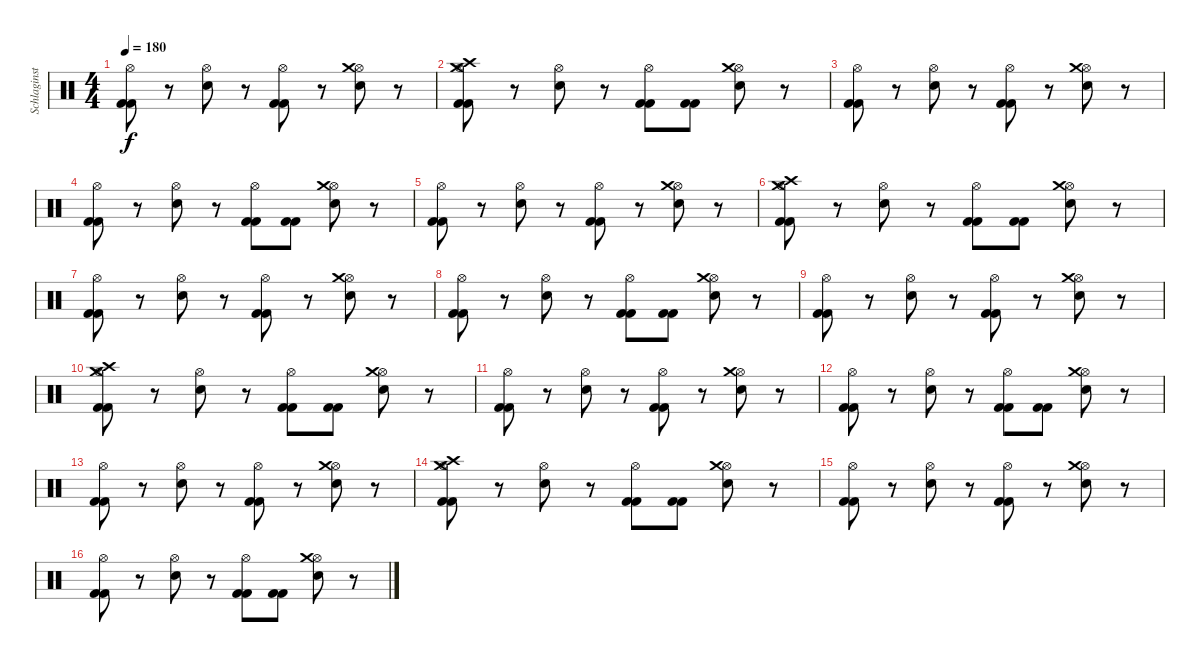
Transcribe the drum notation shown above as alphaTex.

\track ("Schlaginstrumente - Auswahl" "Schlaginst") {instrument percussion}
\staff {score}
\articulation defaults
\ts (4 4)
\tempo 180
\clef neutral
\ks c
("Kick (hit) 2" "Kick (hit) 2" "Hi-Hat (open)").8{dy f} r.8 ("Hi-Hat (open)" "Snare (hit) 2").8 r.8 ("Kick (hit) 2" "Kick (hit) 2" "Hi-Hat (open)").8 r.8 ("Hi-Hat (open)" "Snare (hit) 2" "Crash medium (hit)").8 r.8 |
("Kick (hit) 2" "Kick (hit) 2" "Hi-Hat (open)" "Crash high (hit)" "Crash medium (hit)").8 r.8 ("Hi-Hat (open)" "Snare (hit) 2").8 r.8 ("Kick (hit) 2" "Kick (hit) 2" "Hi-Hat (open)").8 ("Kick (hit) 2" "Kick (hit) 2").8 ("Hi-Hat (open)" "Snare (hit) 2" "Crash medium (hit)").8 r.8 |
("Kick (hit) 2" "Kick (hit) 2" "Hi-Hat (open)").8 r.8 ("Hi-Hat (open)" "Snare (hit) 2").8 r.8 ("Kick (hit) 2" "Kick (hit) 2" "Hi-Hat (open)").8 r.8 ("Hi-Hat (open)" "Snare (hit) 2" "Crash medium (hit)").8 r.8 |
("Kick (hit) 2" "Kick (hit) 2" "Hi-Hat (open)").8 r.8 ("Hi-Hat (open)" "Snare (hit) 2").8 r.8 ("Kick (hit) 2" "Kick (hit) 2" "Hi-Hat (open)").8 ("Kick (hit) 2" "Kick (hit) 2").8 ("Hi-Hat (open)" "Snare (hit) 2" "Crash medium (hit)").8 r.8 |
("Kick (hit) 2" "Kick (hit) 2" "Hi-Hat (open)").8 r.8 ("Hi-Hat (open)" "Snare (hit) 2").8 r.8 ("Kick (hit) 2" "Kick (hit) 2" "Hi-Hat (open)").8 r.8 ("Hi-Hat (open)" "Snare (hit) 2" "Crash medium (hit)").8 r.8 |
("Kick (hit) 2" "Kick (hit) 2" "Hi-Hat (open)" "Crash high (hit)" "Crash medium (hit)").8 r.8 ("Hi-Hat (open)" "Snare (hit) 2").8 r.8 ("Kick (hit) 2" "Kick (hit) 2" "Hi-Hat (open)").8 ("Kick (hit) 2" "Kick (hit) 2").8 ("Hi-Hat (open)" "Snare (hit) 2" "Crash medium (hit)").8 r.8 |
("Kick (hit) 2" "Kick (hit) 2" "Hi-Hat (open)").8 r.8 ("Hi-Hat (open)" "Snare (hit) 2").8 r.8 ("Kick (hit) 2" "Kick (hit) 2" "Hi-Hat (open)").8 r.8 ("Hi-Hat (open)" "Snare (hit) 2" "Crash medium (hit)").8 r.8 |
("Kick (hit) 2" "Kick (hit) 2" "Hi-Hat (open)").8 r.8 ("Hi-Hat (open)" "Snare (hit) 2").8 r.8 ("Kick (hit) 2" "Kick (hit) 2" "Hi-Hat (open)").8 ("Kick (hit) 2" "Kick (hit) 2").8 ("Hi-Hat (open)" "Snare (hit) 2" "Crash medium (hit)").8 r.8 |
("Kick (hit) 2" "Kick (hit) 2" "Hi-Hat (open)").8 r.8 ("Hi-Hat (open)" "Snare (hit) 2").8 r.8 ("Kick (hit) 2" "Kick (hit) 2" "Hi-Hat (open)").8 r.8 ("Hi-Hat (open)" "Snare (hit) 2" "Crash medium (hit)").8 r.8 |
("Kick (hit) 2" "Kick (hit) 2" "Hi-Hat (open)" "Crash high (hit)" "Crash medium (hit)").8 r.8 ("Hi-Hat (open)" "Snare (hit) 2").8 r.8 ("Kick (hit) 2" "Kick (hit) 2" "Hi-Hat (open)").8 ("Kick (hit) 2" "Kick (hit) 2").8 ("Hi-Hat (open)" "Snare (hit) 2" "Crash medium (hit)").8 r.8 |
("Kick (hit) 2" "Kick (hit) 2" "Hi-Hat (open)").8 r.8 ("Hi-Hat (open)" "Snare (hit) 2").8 r.8 ("Kick (hit) 2" "Kick (hit) 2" "Hi-Hat (open)").8 r.8 ("Hi-Hat (open)" "Snare (hit) 2" "Crash medium (hit)").8 r.8 |
("Kick (hit) 2" "Kick (hit) 2" "Hi-Hat (open)").8 r.8 ("Hi-Hat (open)" "Snare (hit) 2").8 r.8 ("Kick (hit) 2" "Kick (hit) 2" "Hi-Hat (open)").8 ("Kick (hit) 2" "Kick (hit) 2").8 ("Hi-Hat (open)" "Snare (hit) 2" "Crash medium (hit)").8 r.8 |
("Kick (hit) 2" "Kick (hit) 2" "Hi-Hat (open)").8 r.8 ("Hi-Hat (open)" "Snare (hit) 2").8 r.8 ("Kick (hit) 2" "Kick (hit) 2" "Hi-Hat (open)").8 r.8 ("Hi-Hat (open)" "Snare (hit) 2" "Crash medium (hit)").8 r.8 |
("Kick (hit) 2" "Kick (hit) 2" "Hi-Hat (open)" "Crash high (hit)" "Crash medium (hit)").8 r.8 ("Hi-Hat (open)" "Snare (hit) 2").8 r.8 ("Kick (hit) 2" "Kick (hit) 2" "Hi-Hat (open)").8 ("Kick (hit) 2" "Kick (hit) 2").8 ("Hi-Hat (open)" "Snare (hit) 2" "Crash medium (hit)").8 r.8 |
("Kick (hit) 2" "Kick (hit) 2" "Hi-Hat (open)").8 r.8 ("Hi-Hat (open)" "Snare (hit) 2").8 r.8 ("Kick (hit) 2" "Kick (hit) 2" "Hi-Hat (open)").8 r.8 ("Hi-Hat (open)" "Snare (hit) 2" "Crash medium (hit)").8 r.8 |
("Kick (hit) 2" "Kick (hit) 2" "Hi-Hat (open)").8 r.8 ("Hi-Hat (open)" "Snare (hit) 2").8 r.8 ("Kick (hit) 2" "Kick (hit) 2" "Hi-Hat (open)").8 ("Kick (hit) 2" "Kick (hit) 2").8 ("Hi-Hat (open)" "Snare (hit) 2" "Crash medium (hit)").8 r.8
